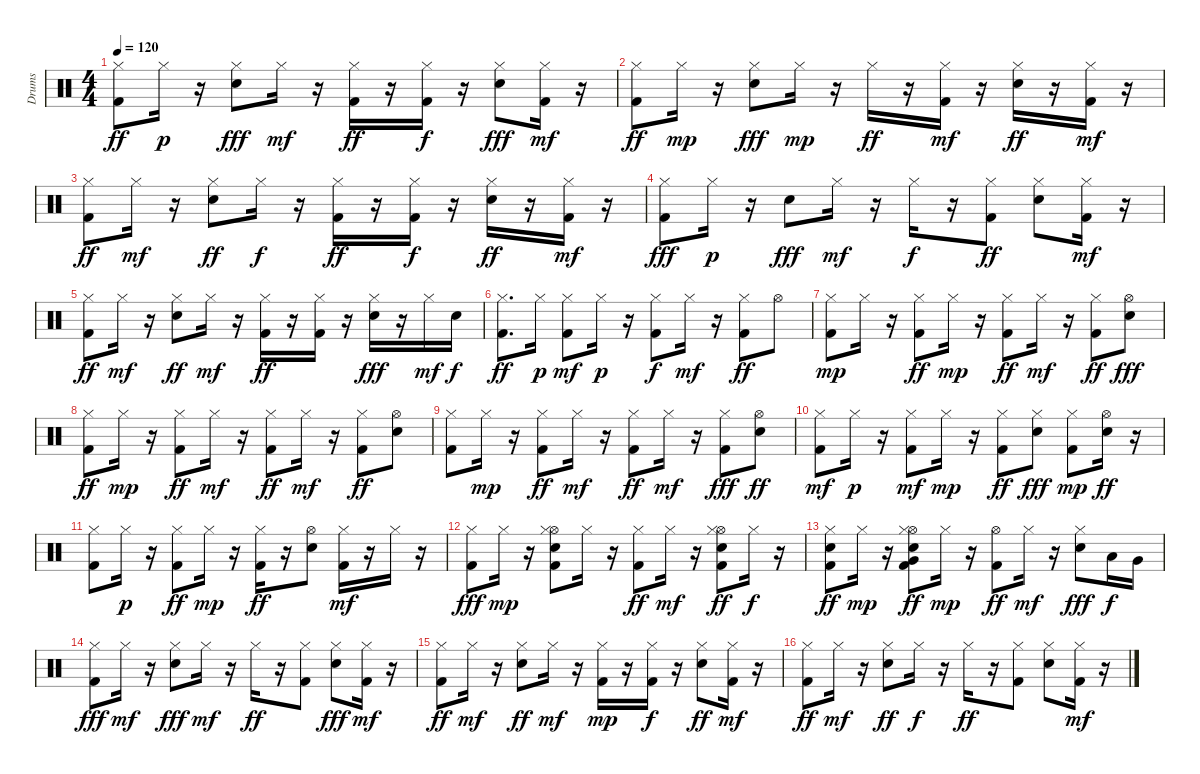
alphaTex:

\track ("Drums" "Drums") {instrument percussion}
\staff {score}
\articulation defaults
\ts (4 4)
\tempo 120
\clef neutral
\ks c
("Hi-Hat (closed)" "Kick (hit) 2").8{dy ff} "Hi-Hat (closed)".16{dy p} r.16 ("Hi-Hat (closed)" "Electric Snare (hit)").8{dy fff} "Hi-Hat (closed)".16{dy mf} r.16 ("Kick (hit) 2" "Hi-Hat (closed)").16{dy ff} r.16 ("Hi-Hat (closed)" "Kick (hit) 2").16{dy f} r.16 ("Electric Snare (hit)" "Hi-Hat (closed)").8{dy fff} ("Hi-Hat (closed)" "Kick (hit) 2").16{dy mf} r.16 |
("Hi-Hat (closed)" "Kick (hit) 2").8{dy ff} "Hi-Hat (closed)".16{dy mp} r.16 ("Hi-Hat (closed)" "Electric Snare (hit)").8{dy fff} "Hi-Hat (closed)".16{dy mp} r.16 "Hi-Hat (closed)".16{dy ff} r.16 ("Kick (hit) 2" "Hi-Hat (closed)").16{dy mf} r.16 ("Hi-Hat (closed)" "Electric Snare (hit)").16{dy ff} r.16 ("Hi-Hat (closed)" "Kick (hit) 2").16{dy mf} r.16 |
("Hi-Hat (closed)" "Kick (hit) 2").8{dy ff} "Hi-Hat (closed)".16{dy mf} r.16 ("Hi-Hat (closed)" "Electric Snare (hit)").8{dy ff} "Hi-Hat (closed)".16{dy f} r.16 ("Hi-Hat (closed)" "Kick (hit) 2").16{dy ff} r.16 ("Hi-Hat (closed)" "Kick (hit) 2").16{dy f} r.16 ("Hi-Hat (closed)" "Electric Snare (hit)").16{dy ff} r.16 ("Kick (hit) 2" "Hi-Hat (closed)").16{dy mf} r.16 |
("Hi-Hat (closed)" "Kick (hit) 2").8{dy fff} "Hi-Hat (closed)".16{dy p} r.16 "Electric Snare (hit)".8{dy fff} "Hi-Hat (closed)".16{dy mf} r.16 "Hi-Hat (closed)".16{dy f} r.16 ("Hi-Hat (closed)" "Kick (hit) 2").8{dy ff} ("Hi-Hat (closed)" "Electric Snare (hit)").8 ("Hi-Hat (closed)" "Kick (hit) 2").16{dy mf} r.16 |
("Kick (hit) 2" "Hi-Hat (closed)").8{dy ff} "Hi-Hat (closed)".16{dy mf} r.16 ("Electric Snare (hit)" "Hi-Hat (closed)").8{dy ff} "Hi-Hat (closed)".16{dy mf} r.16 ("Kick (hit) 2" "Hi-Hat (closed)").16{dy ff} r.16 ("Hi-Hat (closed)" "Kick (hit) 2").16 r.16 ("Hi-Hat (closed)" "Electric Snare (hit)").16{dy fff} r.16 "Hi-Hat (closed)".16{dy mf} "Electric Snare (hit)".16{dy f} |
("Kick (hit) 2" "Hi-Hat (closed)").8{d dy ff} "Hi-Hat (closed)".16{dy p} ("Kick (hit) 2" "Hi-Hat (closed)").8{dy mf} "Hi-Hat (closed)".16{dy p} r.16 ("Hi-Hat (closed)" "Kick (hit) 2").8{dy f} "Hi-Hat (closed)".16{dy mf} r.16 ("Hi-Hat (closed)" "Kick (hit) 2").8{dy ff} "Hi-Hat (open)".8 |
("Hi-Hat (closed)" "Kick (hit) 2").8{dy mp} "Hi-Hat (closed)".16 r.16 ("Hi-Hat (closed)" "Kick (hit) 2").8{dy ff} "Hi-Hat (closed)".16{dy mp} r.16 ("Kick (hit) 2" "Hi-Hat (closed)").8{dy ff} "Hi-Hat (closed)".16{dy mf} r.16 ("Kick (hit) 2" "Hi-Hat (closed)").8{dy ff} ("Hi-Hat (open)" "Electric Snare (hit)").8{dy fff} |
("Hi-Hat (closed)" "Kick (hit) 2").8{dy ff} "Hi-Hat (closed)".16{dy mp} r.16 ("Kick (hit) 2" "Hi-Hat (closed)").8{dy ff} "Hi-Hat (closed)".16{dy mf} r.16 ("Kick (hit) 2" "Hi-Hat (closed)").8{dy ff} "Hi-Hat (closed)".16{dy mf} r.16 ("Hi-Hat (closed)" "Kick (hit) 2").8{dy ff} ("Electric Snare (hit)" "Hi-Hat (open)").8 |
("Hi-Hat (closed)" "Kick (hit) 2").8 "Hi-Hat (closed)".16{dy mp} r.16 ("Kick (hit) 2" "Hi-Hat (closed)").8{dy ff} "Hi-Hat (closed)".16{dy mf} r.16 ("Hi-Hat (closed)" "Kick (hit) 2").8{dy ff} "Hi-Hat (closed)".16{dy mf} r.16 ("Kick (hit) 2" "Hi-Hat (closed)").8{dy fff} ("Electric Snare (hit)" "Hi-Hat (open)").8{dy ff} |
("Kick (hit) 2" "Hi-Hat (closed)").8{dy mf} "Hi-Hat (closed)".16{dy p} r.16 ("Kick (hit) 2" "Hi-Hat (closed)").8{dy mf} "Hi-Hat (closed)".16{dy mp} r.16 ("Kick (hit) 2" "Hi-Hat (closed)").8{dy ff} ("Electric Snare (hit)" "Hi-Hat (closed)").8{dy fff} ("Hi-Hat (closed)" "Kick (hit) 2").8{dy mp} ("Hi-Hat (open)" "Electric Snare (hit)").16{dy ff} r.16 |
("Hi-Hat (closed)" "Kick (hit) 2").8 "Hi-Hat (closed)".16{dy p} r.16 ("Hi-Hat (closed)" "Kick (hit) 2").8{dy ff} "Hi-Hat (closed)".16{dy mp} r.16 ("Kick (hit) 2" "Hi-Hat (closed)").16{dy ff} r.16 ("Hi-Hat (open)" "Electric Snare (hit)").8 ("Hi-Hat (closed)" "Kick (hit) 2").16{dy mf} r.16 "Hi-Hat (closed)".16 r.16 |
("Kick (hit) 2" "Hi-Hat (closed)").8{dy fff} "Hi-Hat (closed)".16{dy mp} r.16 ("Kick (hit) 2" "Electric Snare (hit)" "Hi-Hat (open)" "Hi-Hat (closed)").8 "Hi-Hat (closed)".16 r.16 ("Kick (hit) 2" "Hi-Hat (closed)").8{dy ff} "Hi-Hat (closed)".16{dy mf} r.16 ("Kick (hit) 2" "Electric Snare (hit)" "Hi-Hat (open)" "Hi-Hat (closed)").8{dy ff} "Hi-Hat (closed)".16{dy f} r.16 |
("Kick (hit) 2" "Hi-Hat (closed)" "Electric Snare (hit)").8{dy ff} "Hi-Hat (closed)".16{dy mp} r.16 ("Kick (hit) 2" "Electric Snare (hit)" "Hi-Hat (open)" "Hi-Hat (closed)" "Very Low Tom (hit)").8{dy ff} "Hi-Hat (closed)".16{dy mp} r.16 ("Kick (hit) 2" "Hi-Hat (open)").8{dy ff} "Hi-Hat (closed)".16{dy mf} r.16 ("Hi-Hat (closed)" "Electric Snare (hit)").8{dy fff} "Low Tom (hit)".16{dy f} "Very Low Tom (hit)".16 |
("Kick (hit) 2" "Hi-Hat (closed)").8{dy fff} "Hi-Hat (closed)".16{dy mf} r.16 ("Electric Snare (hit)" "Hi-Hat (closed)").8{dy fff} "Hi-Hat (closed)".16{dy mf} r.16 "Hi-Hat (closed)".16{dy ff} r.16 ("Hi-Hat (closed)" "Kick (hit) 2").8 ("Electric Snare (hit)" "Hi-Hat (closed)").8{dy fff} ("Kick (hit) 2" "Hi-Hat (closed)").16{dy mf} r.16 |
("Kick (hit) 2" "Hi-Hat (closed)").8{dy ff} "Hi-Hat (closed)".16{dy mf} r.16 ("Electric Snare (hit)" "Hi-Hat (closed)").8{dy ff} "Hi-Hat (closed)".16{dy mf} r.16 ("Kick (hit) 2" "Hi-Hat (closed)").16{dy mp} r.16 ("Hi-Hat (closed)" "Kick (hit) 2").16{dy f} r.16 ("Hi-Hat (closed)" "Electric Snare (hit)").8{dy ff} ("Kick (hit) 2" "Hi-Hat (closed)").16{dy mf} r.16 |
("Hi-Hat (closed)" "Kick (hit) 2").8{dy ff} "Hi-Hat (closed)".16{dy mf} r.16 ("Hi-Hat (closed)" "Electric Snare (hit)").8{dy ff} "Hi-Hat (closed)".16{dy f} r.16 "Hi-Hat (closed)".16{dy ff} r.16 ("Kick (hit) 2" "Hi-Hat (closed)").8 ("Electric Snare (hit)" "Hi-Hat (closed)").8 ("Kick (hit) 2" "Hi-Hat (closed)").16{dy mf} r.16
